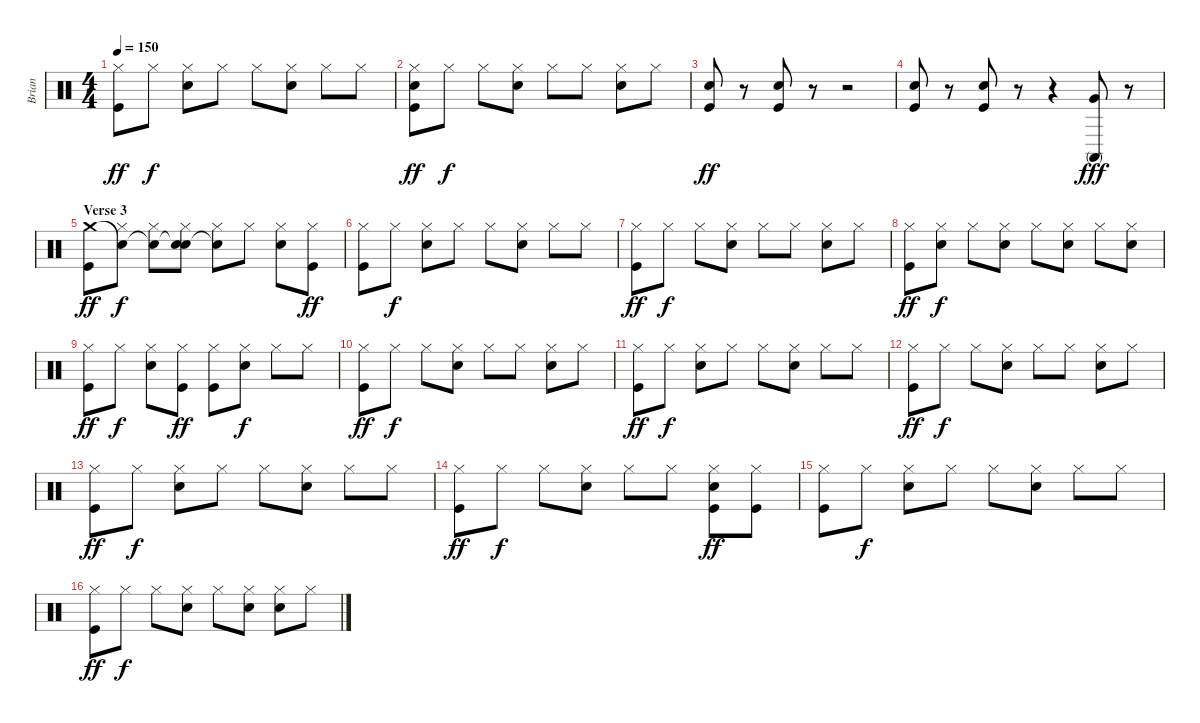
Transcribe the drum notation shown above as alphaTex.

\track ("Brian" "Brian") {instrument percussion}
\staff {score}
\articulation defaults
\ts (4 4)
\tempo 150
\clef neutral
\ks c
("Hi-Hat (closed)" "Kick (hit)").8{dy ff} "Hi-Hat (closed)".8{dy f} ("Hi-Hat (closed)" "Snare (hit) 2").8 "Hi-Hat (closed)".8 "Hi-Hat (closed)".8 ("Hi-Hat (closed)" "Snare (hit) 2").8 "Hi-Hat (closed)".8 "Hi-Hat (closed)".8 |
("Hi-Hat (closed)" "Snare (hit) 2" "Kick (hit)").8{dy ff} "Hi-Hat (closed)".8{dy f} "Hi-Hat (closed)".8 ("Hi-Hat (closed)" "Snare (hit) 2").8 "Hi-Hat (closed)".8 "Hi-Hat (closed)".8 ("Hi-Hat (closed)" "Snare (hit) 2").8 "Hi-Hat (closed)".8 |
("Snare (hit) 2" "Kick (hit)").8{dy ff} r.8 ("Snare (hit) 2" "Kick (hit)").8 r.8 r.2 |
("Snare (hit) 2" "Kick (hit)").8 r.8 ("Snare (hit) 2" "Kick (hit)").8 r.8 r.4 ("Conga high (mute)" "Very Low Tom (hit)").8{dy fff} r.8 |
\section ("" "Verse 3")
("Crash medium (hit)" "Kick (hit)").8{dy ff} ("Snare (hit)"{t} "Hi-Hat (closed)").8{dy f} ("Snare (hit)"{t} "Hi-Hat (closed)").8 ("Snare (hit)"{t} "Hi-Hat (closed)" "Snare (hit) 2").8 ("Snare (hit)"{t} "Hi-Hat (closed)").8 "Hi-Hat (closed)".8 ("Hi-Hat (closed)" "Snare (hit) 2").8 ("Hi-Hat (closed)" "Kick (hit)").8{dy ff} |
("Hi-Hat (closed)" "Kick (hit)").8 "Hi-Hat (closed)".8{dy f} ("Hi-Hat (closed)" "Snare (hit) 2").8 "Hi-Hat (closed)".8 "Hi-Hat (closed)".8 ("Hi-Hat (closed)" "Snare (hit) 2").8 "Hi-Hat (closed)".8 "Hi-Hat (closed)".8 |
("Hi-Hat (closed)" "Kick (hit)").8{dy ff} "Hi-Hat (closed)".8{dy f} "Hi-Hat (closed)".8 ("Hi-Hat (closed)" "Snare (hit) 2").8 "Hi-Hat (closed)".8 "Hi-Hat (closed)".8 ("Hi-Hat (closed)" "Snare (hit) 2").8 "Hi-Hat (closed)".8 |
("Hi-Hat (closed)" "Kick (hit)").8{dy ff} ("Hi-Hat (closed)" "Snare (hit) 2").8{dy f} "Hi-Hat (closed)".8 ("Hi-Hat (closed)" "Snare (hit) 2").8 "Hi-Hat (closed)".8 ("Hi-Hat (closed)" "Snare (hit) 2").8 "Hi-Hat (closed)".8 ("Hi-Hat (closed)" "Snare (hit) 2").8 |
("Hi-Hat (closed)" "Kick (hit)").8{dy ff} "Hi-Hat (closed)".8{dy f} ("Hi-Hat (closed)" "Snare (hit) 2").8 ("Hi-Hat (closed)" "Kick (hit)").8{dy ff} ("Hi-Hat (closed)" "Kick (hit)").8 ("Hi-Hat (closed)" "Snare (hit) 2").8{dy f} "Hi-Hat (closed)".8 "Hi-Hat (closed)".8 |
("Hi-Hat (closed)" "Kick (hit)").8{dy ff} "Hi-Hat (closed)".8{dy f} "Hi-Hat (closed)".8 ("Hi-Hat (closed)" "Snare (hit) 2").8 "Hi-Hat (closed)".8 "Hi-Hat (closed)".8 ("Hi-Hat (closed)" "Snare (hit) 2").8 "Hi-Hat (closed)".8 |
("Hi-Hat (closed)" "Kick (hit)").8{dy ff} "Hi-Hat (closed)".8{dy f} ("Hi-Hat (closed)" "Snare (hit) 2").8 "Hi-Hat (closed)".8 "Hi-Hat (closed)".8 ("Hi-Hat (closed)" "Snare (hit) 2").8 "Hi-Hat (closed)".8 "Hi-Hat (closed)".8 |
("Hi-Hat (closed)" "Kick (hit)").8{dy ff} "Hi-Hat (closed)".8{dy f} "Hi-Hat (closed)".8 ("Hi-Hat (closed)" "Snare (hit) 2").8 "Hi-Hat (closed)".8 "Hi-Hat (closed)".8 ("Hi-Hat (closed)" "Snare (hit) 2").8 "Hi-Hat (closed)".8 |
("Hi-Hat (closed)" "Kick (hit)").8{dy ff} "Hi-Hat (closed)".8{dy f} ("Hi-Hat (closed)" "Snare (hit) 2").8 "Hi-Hat (closed)".8 "Hi-Hat (closed)".8 ("Hi-Hat (closed)" "Snare (hit) 2").8 "Hi-Hat (closed)".8 "Hi-Hat (closed)".8 |
("Hi-Hat (closed)" "Kick (hit)").8{dy ff} "Hi-Hat (closed)".8{dy f} "Hi-Hat (closed)".8 ("Hi-Hat (closed)" "Snare (hit) 2").8 "Hi-Hat (closed)".8 "Hi-Hat (closed)".8 ("Hi-Hat (closed)" "Snare (hit) 2" "Kick (hit)").8{dy ff} ("Hi-Hat (closed)" "Kick (hit)").8 |
("Hi-Hat (closed)" "Kick (hit)").8 "Hi-Hat (closed)".8{dy f} ("Hi-Hat (closed)" "Snare (hit) 2").8 "Hi-Hat (closed)".8 "Hi-Hat (closed)".8 ("Hi-Hat (closed)" "Snare (hit) 2").8 "Hi-Hat (closed)".8 "Hi-Hat (closed)".8 |
("Hi-Hat (closed)" "Kick (hit)").8{dy ff} "Hi-Hat (closed)".8{dy f} "Hi-Hat (closed)".8 ("Hi-Hat (closed)" "Snare (hit) 2").8 "Hi-Hat (closed)".8 ("Hi-Hat (closed)" "Snare (hit) 2").8 ("Hi-Hat (closed)" "Snare (hit) 2").8 "Hi-Hat (closed)".8
